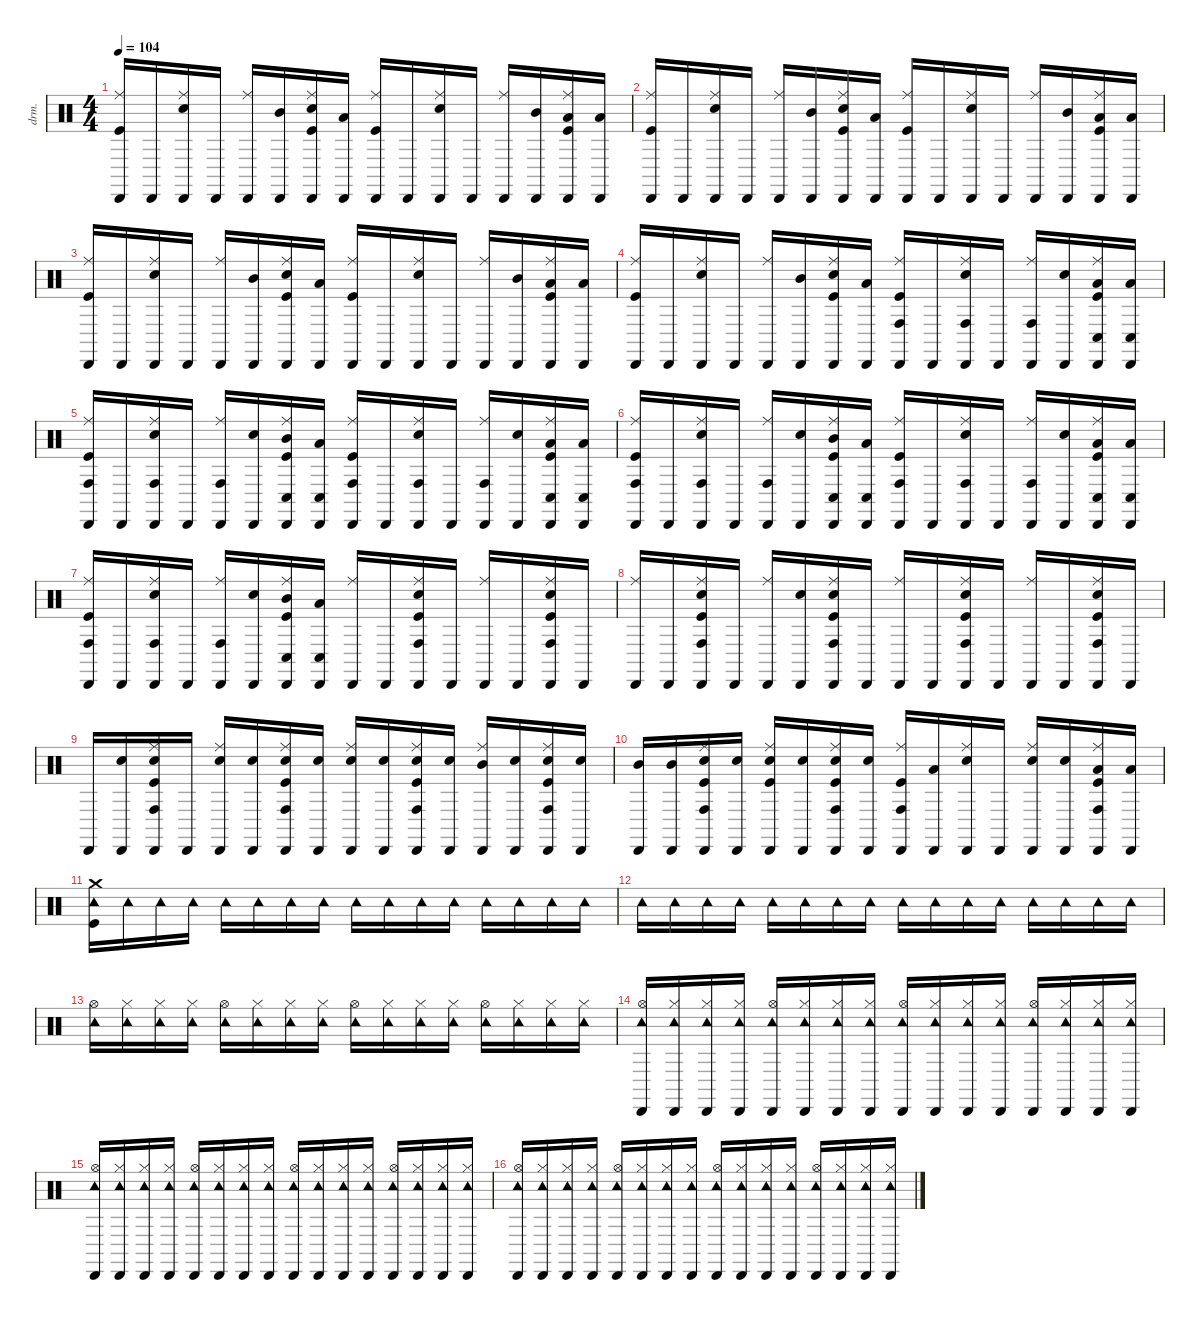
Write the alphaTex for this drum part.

\defaultSystemsLayout 4
\hideDynamics
\bracketExtendMode nobrackets
\otherSystemsTrackNameOrientation horizontal
\track ("Drums" "drm.") {instrument percussion}
\staff {score}
\articulation defaults
\ts (4 4)
\tempo 104
\clef neutral
\ks c
("Cabasa (hit)" "Ride (middle)" "Kick (hit)").16{dy f beam Up} "Cabasa (hit)".16{beam Up} ("Cabasa (hit)" "Ride (middle)" "Snare (hit) 2").16{beam Up} "Cabasa (hit)".16{beam Up} ("Cabasa (hit)" "Ride (middle)").16{beam Up} ("Cabasa (hit)" "Mid Tom (hit)").16{beam Up} ("Cabasa (hit)" "Ride (middle)" "Snare (hit) 2" "Kick (hit)").16{beam Up} ("Cabasa (hit)" "Low Tom (hit)").16{beam Up} ("Cabasa (hit)" "Ride (middle)" "Kick (hit)").16{beam Up} "Cabasa (hit)".16{beam Up} ("Cabasa (hit)" "Ride (middle)" "Snare (hit) 2").16{beam Up} "Cabasa (hit)".16{beam Up} ("Cabasa (hit)" "Ride (middle)").16{beam Up} ("Cabasa (hit)" "Mid Tom (hit)").16{beam Up} ("Cabasa (hit)" "Ride (middle)" "Low Tom (hit)" "Kick (hit)").16{beam Up} ("Cabasa (hit)" "Low Tom (hit)").16{beam Up} |
("Cabasa (hit)" "Ride (middle)" "Kick (hit)").16{beam Up} "Cabasa (hit)".16{beam Up} ("Cabasa (hit)" "Ride (middle)" "Snare (hit) 2").16{beam Up} "Cabasa (hit)".16{beam Up} ("Cabasa (hit)" "Ride (middle)").16{beam Up} ("Cabasa (hit)" "Mid Tom (hit)").16{beam Up} ("Cabasa (hit)" "Ride (middle)" "Snare (hit) 2" "Kick (hit)").16{beam Up} ("Cabasa (hit)" "Low Tom (hit)").16{beam Up} ("Cabasa (hit)" "Ride (middle)" "Kick (hit)").16{beam Up} "Cabasa (hit)".16{beam Up} ("Cabasa (hit)" "Ride (middle)" "Snare (hit) 2").16{beam Up} "Cabasa (hit)".16{beam Up} ("Cabasa (hit)" "Ride (middle)").16{beam Up} ("Cabasa (hit)" "Mid Tom (hit)").16{beam Up} ("Cabasa (hit)" "Ride (middle)" "Low Tom (hit)" "Kick (hit)").16{beam Up} ("Cabasa (hit)" "Low Tom (hit)").16{beam Up} |
("Cabasa (hit)" "Ride (middle)" "Kick (hit)").16{beam Up} "Cabasa (hit)".16{beam Up} ("Cabasa (hit)" "Ride (middle)" "Snare (hit) 2").16{beam Up} "Cabasa (hit)".16{beam Up} ("Cabasa (hit)" "Ride (middle)").16{beam Up} ("Cabasa (hit)" "Mid Tom (hit)").16{beam Up} ("Cabasa (hit)" "Ride (middle)" "Snare (hit) 2" "Kick (hit)").16{beam Up} ("Cabasa (hit)" "Low Tom (hit)").16{beam Up} ("Cabasa (hit)" "Ride (middle)" "Kick (hit)").16{beam Up} "Cabasa (hit)".16{beam Up} ("Cabasa (hit)" "Ride (middle)" "Snare (hit) 2").16{beam Up} "Cabasa (hit)".16{beam Up} ("Cabasa (hit)" "Ride (middle)").16{beam Up} ("Cabasa (hit)" "Mid Tom (hit)").16{beam Up} ("Cabasa (hit)" "Ride (middle)" "Low Tom (hit)" "Kick (hit)").16{beam Up} ("Cabasa (hit)" "Low Tom (hit)").16{beam Up} |
("Cabasa (hit)" "Ride (middle)" "Kick (hit)").16{beam Up} "Cabasa (hit)".16{beam Up} ("Cabasa (hit)" "Ride (middle)" "Snare (hit) 2").16{beam Up} "Cabasa (hit)".16{beam Up} ("Cabasa (hit)" "Ride (middle)").16{beam Up} ("Cabasa (hit)" "Mid Tom (hit)").16{beam Up} ("Cabasa (hit)" "Ride (middle)" "Snare (hit) 2" "Kick (hit)").16{beam Up} ("Cabasa (hit)" "Low Tom (hit)").16{beam Up} ("Cabasa (hit)" "Ride (middle)" "Conga high (hit)" "Kick (hit)").16{beam Up} "Cabasa (hit)".16{beam Up} ("Cabasa (hit)" "Ride (middle)" "Conga high (hit)" "Snare (hit) 2").16{beam Up} "Cabasa (hit)".16{beam Up} ("Cabasa (hit)" "Ride (middle)" "Conga high (hit)").16{beam Up} ("Cabasa (hit)" "Snare (hit) 2").16{beam Up} ("Cabasa (hit)" "Ride (middle)" "Conga low (hit)" "Low Tom (hit)" "Kick (hit)").16{beam Up} ("Cabasa (hit)" "Conga low (hit)" "Low Tom (hit)").16{beam Up} |
("Cabasa (hit)" "Ride (middle)" "Conga high (hit)" "Kick (hit)").16{beam Up} "Cabasa (hit)".16{beam Up} ("Cabasa (hit)" "Ride (middle)" "Conga high (hit)" "Snare (hit) 2").16{beam Up} "Cabasa (hit)".16{beam Up} ("Cabasa (hit)" "Ride (middle)" "Conga high (hit)").16{beam Up} ("Cabasa (hit)" "Snare (hit) 2").16{beam Up} ("Cabasa (hit)" "Ride (middle)" "Conga low (hit)" "Mid Tom (hit)" "Kick (hit)").16{beam Up} ("Cabasa (hit)" "Conga low (hit)" "Low Tom (hit)").16{beam Up} ("Cabasa (hit)" "Ride (middle)" "Conga high (hit)" "Kick (hit)").16{beam Up} "Cabasa (hit)".16{beam Up} ("Cabasa (hit)" "Ride (middle)" "Conga high (hit)" "Snare (hit) 2").16{beam Up} "Cabasa (hit)".16{beam Up} ("Cabasa (hit)" "Ride (middle)" "Conga high (hit)").16{beam Up} ("Cabasa (hit)" "Snare (hit) 2").16{beam Up} ("Cabasa (hit)" "Ride (middle)" "Conga low (hit)" "Low Tom (hit)" "Kick (hit)").16{beam Up} ("Cabasa (hit)" "Conga low (hit)" "Low Tom (hit)").16{beam Up} |
("Cabasa (hit)" "Ride (middle)" "Conga high (hit)" "Kick (hit)").16{beam Up} "Cabasa (hit)".16{beam Up} ("Cabasa (hit)" "Ride (middle)" "Conga high (hit)" "Snare (hit) 2").16{beam Up} "Cabasa (hit)".16{beam Up} ("Cabasa (hit)" "Ride (middle)" "Conga high (hit)").16{beam Up} ("Cabasa (hit)" "Snare (hit) 2").16{beam Up} ("Cabasa (hit)" "Ride (middle)" "Conga low (hit)" "Mid Tom (hit)" "Kick (hit)").16{beam Up} ("Cabasa (hit)" "Conga low (hit)" "Low Tom (hit)").16{beam Up} ("Cabasa (hit)" "Ride (middle)" "Conga high (hit)" "Kick (hit)").16{beam Up} "Cabasa (hit)".16{beam Up} ("Cabasa (hit)" "Ride (middle)" "Conga high (hit)" "Snare (hit) 2").16{beam Up} "Cabasa (hit)".16{beam Up} ("Cabasa (hit)" "Ride (middle)" "Conga high (hit)").16{beam Up} ("Cabasa (hit)" "Snare (hit) 2").16{beam Up} ("Cabasa (hit)" "Ride (middle)" "Conga low (hit)" "Low Tom (hit)" "Kick (hit)").16{beam Up} ("Cabasa (hit)" "Conga low (hit)" "Low Tom (hit)").16{beam Up} |
("Cabasa (hit)" "Ride (middle)" "Conga high (hit)" "Kick (hit)").16{beam Up} "Cabasa (hit)".16{beam Up} ("Cabasa (hit)" "Ride (middle)" "Conga high (hit)" "Snare (hit) 2").16{beam Up} "Cabasa (hit)".16{beam Up} ("Cabasa (hit)" "Ride (middle)" "Conga high (hit)").16{beam Up} ("Cabasa (hit)" "Snare (hit) 2").16{beam Up} ("Cabasa (hit)" "Ride (middle)" "Conga low (hit)" "Mid Tom (hit)" "Kick (hit)").16{beam Up} ("Cabasa (hit)" "Conga low (hit)" "Low Tom (hit)").16{beam Up} ("Cabasa (hit)" "Ride (middle)").16{beam Up} "Cabasa (hit)".16{beam Up} ("Cabasa (hit)" "Ride (middle)" "Conga high (hit)" "Snare (hit) 2" "Kick (hit)").16{beam Up} "Cabasa (hit)".16{beam Up} ("Cabasa (hit)" "Ride (middle)").16{beam Up} "Cabasa (hit)".16{beam Up} ("Cabasa (hit)" "Ride (middle)" "Conga high (hit)" "Snare (hit) 2" "Kick (hit)").16{beam Up} "Cabasa (hit)".16{beam Up} |
("Cabasa (hit)" "Ride (middle)").16{beam Up} "Cabasa (hit)".16{beam Up} ("Cabasa (hit)" "Ride (middle)" "Conga high (hit)" "Snare (hit) 2" "Kick (hit)").16{beam Up} "Cabasa (hit)".16{beam Up} ("Cabasa (hit)" "Ride (middle)").16{beam Up} ("Cabasa (hit)" "Snare (hit) 2").16{beam Up} ("Cabasa (hit)" "Ride (middle)" "Conga high (hit)" "Snare (hit) 2" "Kick (hit)").16{beam Up} "Cabasa (hit)".16{beam Up} ("Cabasa (hit)" "Ride (middle)").16{beam Up} "Cabasa (hit)".16{beam Up} ("Cabasa (hit)" "Ride (middle)" "Conga high (hit)" "Snare (hit) 2" "Kick (hit)").16{beam Up} "Cabasa (hit)".16{beam Up} ("Cabasa (hit)" "Ride (middle)").16{beam Up} "Cabasa (hit)".16{beam Up} ("Cabasa (hit)" "Ride (middle)" "Conga high (hit)" "Snare (hit) 2" "Kick (hit)").16{beam Up} "Cabasa (hit)".16{beam Up} |
"Cabasa (hit)".16{beam Up} ("Cabasa (hit)" "Snare (hit) 2").16{beam Up} ("Cabasa (hit)" "Ride (middle)" "Conga high (hit)" "Snare (hit) 2" "Kick (hit)").16{beam Up} "Cabasa (hit)".16{beam Up} ("Cabasa (hit)" "Ride (middle)" "Snare (hit) 2").16{beam Up} ("Cabasa (hit)" "Snare (hit) 2").16{beam Up} ("Cabasa (hit)" "Ride (middle)" "Conga high (hit)" "Snare (hit) 2" "Kick (hit)").16{beam Up} ("Cabasa (hit)" "Snare (hit) 2").16{beam Up} ("Cabasa (hit)" "Ride (middle)" "Snare (hit) 2").16{beam Up} ("Cabasa (hit)" "Snare (hit) 2").16{beam Up} ("Cabasa (hit)" "Ride (middle)" "Conga high (hit)" "Snare (hit) 2" "Kick (hit)").16{beam Up} ("Cabasa (hit)" "Snare (hit) 2").16{beam Up} ("Cabasa (hit)" "Ride (middle)" "Mid Tom (hit)").16{beam Up} ("Cabasa (hit)" "Snare (hit) 2").16{beam Up} ("Cabasa (hit)" "Ride (middle)" "Conga high (hit)" "Snare (hit) 2" "Kick (hit)").16{beam Up} ("Cabasa (hit)" "Snare (hit) 2").16{beam Up} |
("Cabasa (hit)" "Mid Tom (hit)").16{beam Up} ("Cabasa (hit)" "Mid Tom (hit)").16{beam Up} ("Cabasa (hit)" "Ride (middle)" "Conga high (hit)" "Snare (hit) 2" "Kick (hit)").16{beam Up} ("Cabasa (hit)" "Snare (hit) 2").16{beam Up} ("Cabasa (hit)" "Ride (middle)" "Snare (hit) 2" "Kick (hit)").16{beam Up} ("Cabasa (hit)" "Snare (hit) 2").16{beam Up} ("Cabasa (hit)" "Ride (middle)" "Conga high (hit)" "Snare (hit) 2" "Kick (hit)").16{beam Up} ("Cabasa (hit)" "Snare (hit) 2").16{beam Up} ("Cabasa (hit)" "Ride (middle)" "Conga high (hit)" "Kick (hit)").16{beam Up} ("Cabasa (hit)" "Low Tom (hit)").16{beam Up} ("Cabasa (hit)" "Ride (middle)" "Snare (hit) 2").16{beam Up} "Cabasa (hit)".16{beam Up} ("Cabasa (hit)" "Ride (middle)" "Snare (hit) 2").16{beam Up} ("Cabasa (hit)" "Snare (hit) 2").16{beam Up} ("Cabasa (hit)" "Ride (middle)" "Conga high (hit)" "Low Tom (hit)" "Kick (hit)").16{beam Up} ("Cabasa (hit)" "Low Tom (hit)").16{beam Up} |
("Crash medium (hit)" "Tambourine (hit)" "Kick (hit)").16{beam Down} "Tambourine (hit)".16{beam Down} "Tambourine (hit)".16{beam Down} "Tambourine (hit)".16{beam Down} "Tambourine (hit)".16{beam Down} "Tambourine (hit)".16{beam Down} "Tambourine (hit)".16{beam Down} "Tambourine (hit)".16{beam Down} "Tambourine (hit)".16{beam Down} "Tambourine (hit)".16{beam Down} "Tambourine (hit)".16{beam Down} "Tambourine (hit)".16{beam Down} "Tambourine (hit)".16{beam Down} "Tambourine (hit)".16{beam Down} "Tambourine (hit)".16{beam Down} "Tambourine (hit)".16{beam Down} |
"Tambourine (hit)".16{beam Down} "Tambourine (hit)".16{beam Down} "Tambourine (hit)".16{beam Down} "Tambourine (hit)".16{beam Down} "Tambourine (hit)".16{beam Down} "Tambourine (hit)".16{beam Down} "Tambourine (hit)".16{beam Down} "Tambourine (hit)".16{beam Down} "Tambourine (hit)".16{beam Down} "Tambourine (hit)".16{beam Down} "Tambourine (hit)".16{beam Down} "Tambourine (hit)".16{beam Down} "Tambourine (hit)".16{beam Down} "Tambourine (hit)".16{beam Down} "Tambourine (hit)".16{beam Down} "Tambourine (hit)".16{beam Down} |
("Hi-Hat (open)" "Tambourine (hit)").16{beam Down} ("Hi-Hat (closed)" "Tambourine (hit)").16{beam Down} ("Hi-Hat (closed)" "Tambourine (hit)").16{beam Down} ("Hi-Hat (closed)" "Tambourine (hit)").16{beam Down} ("Hi-Hat (open)" "Tambourine (hit)").16{beam Down} ("Hi-Hat (closed)" "Tambourine (hit)").16{beam Down} ("Hi-Hat (closed)" "Tambourine (hit)").16{beam Down} ("Hi-Hat (closed)" "Tambourine (hit)").16{beam Down} ("Hi-Hat (open)" "Tambourine (hit)").16{beam Down} ("Hi-Hat (closed)" "Tambourine (hit)").16{beam Down} ("Hi-Hat (closed)" "Tambourine (hit)").16{beam Down} ("Hi-Hat (closed)" "Tambourine (hit)").16{beam Down} ("Hi-Hat (open)" "Tambourine (hit)").16{beam Down} ("Hi-Hat (closed)" "Tambourine (hit)").16{beam Down} ("Hi-Hat (closed)" "Tambourine (hit)").16{beam Down} ("Hi-Hat (closed)" "Tambourine (hit)").16{beam Down} |
("Cabasa (hit)" "Hi-Hat (open)" "Tambourine (hit)").16{beam Up} ("Cabasa (hit)" "Hi-Hat (closed)" "Tambourine (hit)").16{beam Up} ("Cabasa (hit)" "Hi-Hat (closed)" "Tambourine (hit)").16{beam Up} ("Cabasa (hit)" "Hi-Hat (closed)" "Tambourine (hit)").16{beam Up} ("Cabasa (hit)" "Hi-Hat (open)" "Tambourine (hit)").16{beam Up} ("Cabasa (hit)" "Hi-Hat (closed)" "Tambourine (hit)").16{beam Up} ("Cabasa (hit)" "Hi-Hat (closed)" "Tambourine (hit)").16{beam Up} ("Cabasa (hit)" "Hi-Hat (closed)" "Tambourine (hit)").16{beam Up} ("Cabasa (hit)" "Hi-Hat (open)" "Tambourine (hit)").16{beam Up} ("Cabasa (hit)" "Hi-Hat (closed)" "Tambourine (hit)").16{beam Up} ("Cabasa (hit)" "Hi-Hat (closed)" "Tambourine (hit)").16{beam Up} ("Cabasa (hit)" "Hi-Hat (closed)" "Tambourine (hit)").16{beam Up} ("Cabasa (hit)" "Hi-Hat (open)" "Tambourine (hit)").16{beam Up} ("Cabasa (hit)" "Hi-Hat (closed)" "Tambourine (hit)").16{beam Up} ("Cabasa (hit)" "Hi-Hat (closed)" "Tambourine (hit)").16{beam Up} ("Cabasa (hit)" "Hi-Hat (closed)" "Tambourine (hit)").16{beam Up} |
("Cabasa (hit)" "Hi-Hat (open)" "Tambourine (hit)").16{beam Up} ("Cabasa (hit)" "Hi-Hat (closed)" "Tambourine (hit)").16{beam Up} ("Cabasa (hit)" "Hi-Hat (closed)" "Tambourine (hit)").16{beam Up} ("Cabasa (hit)" "Hi-Hat (closed)" "Tambourine (hit)").16{beam Up} ("Cabasa (hit)" "Hi-Hat (open)" "Tambourine (hit)").16{beam Up} ("Cabasa (hit)" "Hi-Hat (closed)" "Tambourine (hit)").16{beam Up} ("Cabasa (hit)" "Hi-Hat (closed)" "Tambourine (hit)").16{beam Up} ("Cabasa (hit)" "Hi-Hat (closed)" "Tambourine (hit)").16{beam Up} ("Cabasa (hit)" "Hi-Hat (open)" "Tambourine (hit)").16{beam Up} ("Cabasa (hit)" "Hi-Hat (closed)" "Tambourine (hit)").16{beam Up} ("Cabasa (hit)" "Hi-Hat (closed)" "Tambourine (hit)").16{beam Up} ("Cabasa (hit)" "Hi-Hat (closed)" "Tambourine (hit)").16{beam Up} ("Cabasa (hit)" "Hi-Hat (open)" "Tambourine (hit)").16{beam Up} ("Cabasa (hit)" "Hi-Hat (closed)" "Tambourine (hit)").16{beam Up} ("Cabasa (hit)" "Hi-Hat (closed)" "Tambourine (hit)").16{beam Up} ("Cabasa (hit)" "Hi-Hat (closed)" "Tambourine (hit)").16{beam Up} |
("Cabasa (hit)" "Hi-Hat (open)" "Tambourine (hit)").16{beam Up} ("Cabasa (hit)" "Hi-Hat (closed)" "Tambourine (hit)").16{beam Up} ("Cabasa (hit)" "Hi-Hat (closed)" "Tambourine (hit)").16{beam Up} ("Cabasa (hit)" "Hi-Hat (closed)" "Tambourine (hit)").16{beam Up} ("Cabasa (hit)" "Hi-Hat (open)" "Tambourine (hit)").16{beam Up} ("Cabasa (hit)" "Hi-Hat (closed)" "Tambourine (hit)").16{beam Up} ("Cabasa (hit)" "Hi-Hat (closed)" "Tambourine (hit)").16{beam Up} ("Cabasa (hit)" "Hi-Hat (closed)" "Tambourine (hit)").16{beam Up} ("Cabasa (hit)" "Hi-Hat (open)" "Tambourine (hit)").16{beam Up} ("Cabasa (hit)" "Hi-Hat (closed)" "Tambourine (hit)").16{beam Up} ("Cabasa (hit)" "Hi-Hat (closed)" "Tambourine (hit)").16{beam Up} ("Cabasa (hit)" "Hi-Hat (closed)" "Tambourine (hit)").16{beam Up} ("Cabasa (hit)" "Hi-Hat (open)" "Tambourine (hit)").16{beam Up} ("Cabasa (hit)" "Hi-Hat (closed)" "Tambourine (hit)").16{beam Up} ("Cabasa (hit)" "Hi-Hat (closed)" "Tambourine (hit)").16{beam Up} ("Cabasa (hit)" "Hi-Hat (closed)" "Tambourine (hit)").16{beam Up}
